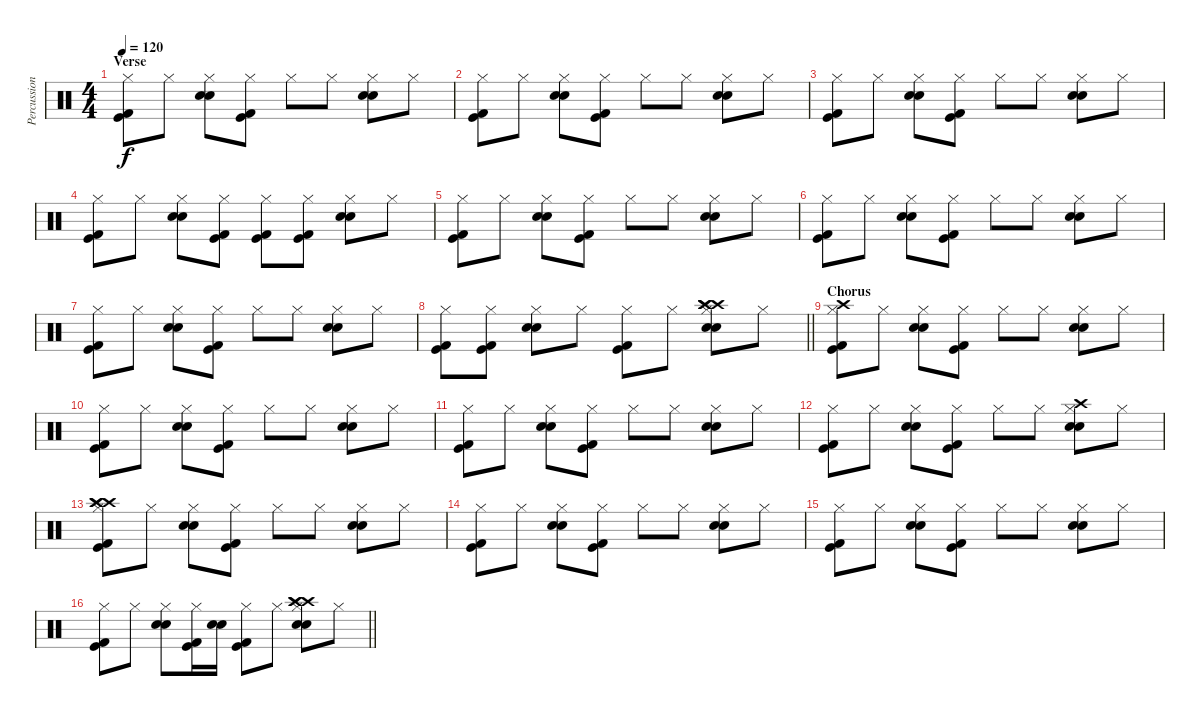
\track ("Percussions" "Percussion") {instrument percussion}
\staff {score}
\articulation defaults
\ts (4 4)
\section ("" "Verse")
\tempo 120
\clef neutral
\ks c
("Hi-Hat (closed)" "Kick (hit)" "Kick (hit) 2").8{dy f} "Hi-Hat (closed)".8 ("Hi-Hat (closed)" "Electric Snare (hit)" "Electric Snare (hit)").8 ("Hi-Hat (closed)" "Kick (hit)" "Kick (hit) 2").8 "Hi-Hat (closed)".8 "Hi-Hat (closed)".8 ("Hi-Hat (closed)" "Electric Snare (hit)" "Electric Snare (hit)").8 "Hi-Hat (closed)".8 |
("Hi-Hat (closed)" "Kick (hit)" "Kick (hit) 2").8 "Hi-Hat (closed)".8 ("Hi-Hat (closed)" "Electric Snare (hit)" "Electric Snare (hit)").8 ("Hi-Hat (closed)" "Kick (hit)" "Kick (hit) 2").8 "Hi-Hat (closed)".8 "Hi-Hat (closed)".8 ("Hi-Hat (closed)" "Electric Snare (hit)" "Electric Snare (hit)").8 "Hi-Hat (closed)".8 |
("Hi-Hat (closed)" "Kick (hit)" "Kick (hit) 2").8 "Hi-Hat (closed)".8 ("Hi-Hat (closed)" "Electric Snare (hit)" "Electric Snare (hit)").8 ("Hi-Hat (closed)" "Kick (hit)" "Kick (hit) 2").8 "Hi-Hat (closed)".8 "Hi-Hat (closed)".8 ("Hi-Hat (closed)" "Electric Snare (hit)" "Electric Snare (hit)").8 "Hi-Hat (closed)".8 |
("Hi-Hat (closed)" "Kick (hit)" "Kick (hit) 2").8 "Hi-Hat (closed)".8 ("Hi-Hat (closed)" "Electric Snare (hit)" "Electric Snare (hit)").8 ("Hi-Hat (closed)" "Kick (hit)" "Kick (hit) 2").8 ("Hi-Hat (closed)" "Kick (hit)" "Kick (hit) 2").8 ("Hi-Hat (closed)" "Kick (hit)" "Kick (hit) 2").8 ("Hi-Hat (closed)" "Electric Snare (hit)" "Electric Snare (hit)").8 "Hi-Hat (closed)".8 |
("Hi-Hat (closed)" "Kick (hit)" "Kick (hit) 2").8 "Hi-Hat (closed)".8 ("Hi-Hat (closed)" "Electric Snare (hit)" "Electric Snare (hit)").8 ("Hi-Hat (closed)" "Kick (hit)" "Kick (hit) 2").8 "Hi-Hat (closed)".8 "Hi-Hat (closed)".8 ("Hi-Hat (closed)" "Electric Snare (hit)" "Electric Snare (hit)").8 "Hi-Hat (closed)".8 |
("Hi-Hat (closed)" "Kick (hit)" "Kick (hit) 2").8 "Hi-Hat (closed)".8 ("Hi-Hat (closed)" "Electric Snare (hit)" "Electric Snare (hit)").8 ("Hi-Hat (closed)" "Kick (hit)" "Kick (hit) 2").8 "Hi-Hat (closed)".8 "Hi-Hat (closed)".8 ("Hi-Hat (closed)" "Electric Snare (hit)" "Electric Snare (hit)").8 "Hi-Hat (closed)".8 |
("Hi-Hat (closed)" "Kick (hit)" "Kick (hit) 2").8 "Hi-Hat (closed)".8 ("Hi-Hat (closed)" "Electric Snare (hit)" "Electric Snare (hit)").8 ("Hi-Hat (closed)" "Kick (hit)" "Kick (hit) 2").8 "Hi-Hat (closed)".8 "Hi-Hat (closed)".8 ("Hi-Hat (closed)" "Electric Snare (hit)" "Electric Snare (hit)").8 "Hi-Hat (closed)".8 |
\barLineRight lightlight
("Hi-Hat (closed)" "Kick (hit)" "Kick (hit) 2").8 ("Hi-Hat (closed)" "Kick (hit)" "Kick (hit) 2").8 ("Hi-Hat (closed)" "Electric Snare (hit)" "Electric Snare (hit)").8 "Hi-Hat (closed)".8 ("Hi-Hat (closed)" "Kick (hit)" "Kick (hit) 2").8 "Hi-Hat (closed)".8 ("Crash high (hit)" "Hi-Hat (closed)" "Electric Snare (hit)" "Electric Snare (hit)" "Crash high (hit)" "Crash high (hit)").8 "Hi-Hat (closed)".8 |
\section ("" "Chorus")
("Crash high (hit)" "Hi-Hat (closed)" "Kick (hit)" "Kick (hit) 2").8 "Hi-Hat (closed)".8 ("Hi-Hat (closed)" "Electric Snare (hit)" "Electric Snare (hit)").8 ("Hi-Hat (closed)" "Kick (hit)" "Kick (hit) 2").8 "Hi-Hat (closed)".8 "Hi-Hat (closed)".8 ("Hi-Hat (closed)" "Electric Snare (hit)" "Electric Snare (hit)").8 "Hi-Hat (closed)".8 |
("Hi-Hat (closed)" "Kick (hit)" "Kick (hit) 2").8 "Hi-Hat (closed)".8 ("Hi-Hat (closed)" "Electric Snare (hit)" "Electric Snare (hit)").8 ("Hi-Hat (closed)" "Kick (hit)" "Kick (hit) 2").8 "Hi-Hat (closed)".8 "Hi-Hat (closed)".8 ("Hi-Hat (closed)" "Electric Snare (hit)" "Electric Snare (hit)").8 "Hi-Hat (closed)".8 |
("Hi-Hat (closed)" "Kick (hit)" "Kick (hit) 2").8 "Hi-Hat (closed)".8 ("Hi-Hat (closed)" "Electric Snare (hit)" "Electric Snare (hit)").8 ("Hi-Hat (closed)" "Kick (hit)" "Kick (hit) 2").8 "Hi-Hat (closed)".8 "Hi-Hat (closed)".8 ("Hi-Hat (closed)" "Electric Snare (hit)" "Electric Snare (hit)").8 "Hi-Hat (closed)".8 |
("Hi-Hat (closed)" "Kick (hit)" "Kick (hit) 2").8 "Hi-Hat (closed)".8 ("Hi-Hat (closed)" "Electric Snare (hit)" "Electric Snare (hit)").8 ("Hi-Hat (closed)" "Kick (hit)" "Kick (hit) 2").8 "Hi-Hat (closed)".8 "Hi-Hat (closed)".8 ("Hi-Hat (closed)" "Electric Snare (hit)" "Electric Snare (hit)" "Crash high (hit)").8 "Hi-Hat (closed)".8 |
("Crash high (hit)" "Hi-Hat (closed)" "Crash high (hit)" "Kick (hit)" "Kick (hit) 2" "Crash high (hit)").8 "Hi-Hat (closed)".8 ("Hi-Hat (closed)" "Electric Snare (hit)" "Electric Snare (hit)").8 ("Hi-Hat (closed)" "Kick (hit)" "Kick (hit) 2").8 "Hi-Hat (closed)".8 "Hi-Hat (closed)".8 ("Hi-Hat (closed)" "Electric Snare (hit)" "Electric Snare (hit)").8 "Hi-Hat (closed)".8 |
("Hi-Hat (closed)" "Kick (hit)" "Kick (hit) 2").8 "Hi-Hat (closed)".8 ("Hi-Hat (closed)" "Electric Snare (hit)" "Electric Snare (hit)").8 ("Hi-Hat (closed)" "Kick (hit)" "Kick (hit) 2").8 "Hi-Hat (closed)".8 "Hi-Hat (closed)".8 ("Hi-Hat (closed)" "Electric Snare (hit)" "Electric Snare (hit)").8 "Hi-Hat (closed)".8 |
("Hi-Hat (closed)" "Kick (hit)" "Kick (hit) 2").8 "Hi-Hat (closed)".8 ("Hi-Hat (closed)" "Electric Snare (hit)" "Electric Snare (hit)").8 ("Hi-Hat (closed)" "Kick (hit)" "Kick (hit) 2").8 "Hi-Hat (closed)".8 "Hi-Hat (closed)".8 ("Hi-Hat (closed)" "Electric Snare (hit)" "Electric Snare (hit)").8 "Hi-Hat (closed)".8 |
\barLineRight lightlight
("Hi-Hat (closed)" "Kick (hit)" "Kick (hit) 2").8 "Hi-Hat (closed)".8 ("Hi-Hat (closed)" "Electric Snare (hit)" "Electric Snare (hit)").8 ("Hi-Hat (closed)" "Kick (hit)" "Kick (hit) 2").16 ("Electric Snare (hit)" "Electric Snare (hit)").16 ("Hi-Hat (closed)" "Kick (hit)" "Kick (hit) 2").8 "Hi-Hat (closed)".8 ("Crash high (hit)" "Hi-Hat (closed)" "Electric Snare (hit)" "Electric Snare (hit)" "Crash high (hit)" "Crash high (hit)").8 "Hi-Hat (closed)".8
